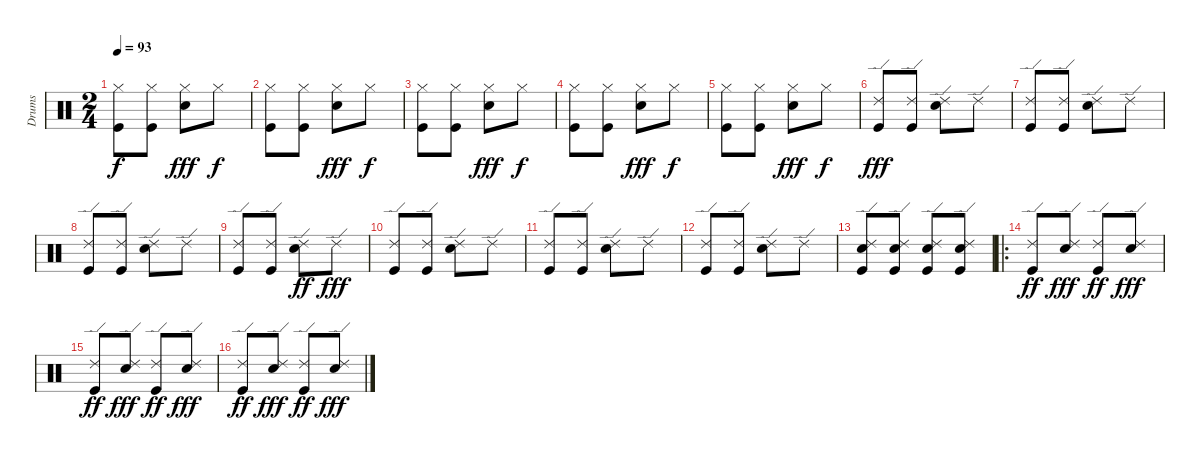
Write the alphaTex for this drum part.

\track ("Drums" "Drums") {instrument percussion}
\staff {score}
\articulation defaults
\ts (2 4)
\tempo 93
\clef neutral
\ks c
("Hi-Hat (closed)" "Kick (hit)").8{dy f} ("Hi-Hat (closed)" "Kick (hit)").8 ("Hi-Hat (closed)" "Snare (hit) 2").8{dy fff} "Hi-Hat (closed)".8{dy f} |
("Hi-Hat (closed)" "Kick (hit)").8 ("Hi-Hat (closed)" "Kick (hit)").8 ("Hi-Hat (closed)" "Snare (hit) 2").8{dy fff} "Hi-Hat (closed)".8{dy f} |
("Hi-Hat (closed)" "Kick (hit)").8 ("Hi-Hat (closed)" "Kick (hit)").8 ("Hi-Hat (closed)" "Snare (hit) 2").8{dy fff} "Hi-Hat (closed)".8{dy f} |
("Hi-Hat (closed)" "Kick (hit)").8 ("Hi-Hat (closed)" "Kick (hit)").8 ("Hi-Hat (closed)" "Snare (hit) 2").8{dy fff} "Hi-Hat (closed)".8{dy f} |
("Hi-Hat (closed)" "Kick (hit)").8 ("Hi-Hat (closed)" "Kick (hit)").8 ("Hi-Hat (closed)" "Snare (hit) 2").8{dy fff} "Hi-Hat (closed)".8{dy f} |
("Ride (edge) 2" "Kick (hit)").8{dy fff} ("Ride (edge) 2" "Kick (hit)").8 ("Ride (edge) 2" "Snare (hit) 2").8 "Ride (edge) 2".8 |
("Ride (edge) 2" "Kick (hit)").8 ("Ride (edge) 2" "Kick (hit)").8 ("Ride (edge) 2" "Snare (hit) 2").8 "Ride (edge) 2".8 |
("Ride (edge) 2" "Kick (hit)").8 ("Ride (edge) 2" "Kick (hit)").8 ("Ride (edge) 2" "Snare (hit) 2").8 "Ride (edge) 2".8 |
("Ride (edge) 2" "Kick (hit)").8 ("Ride (edge) 2" "Kick (hit)").8 ("Ride (edge) 2" "Snare (hit) 2").8{dy ff} "Ride (edge) 2".8{dy fff} |
("Ride (edge) 2" "Kick (hit)").8 ("Ride (edge) 2" "Kick (hit)").8 ("Ride (edge) 2" "Snare (hit) 2").8 "Ride (edge) 2".8 |
("Ride (edge) 2" "Kick (hit)").8 ("Ride (edge) 2" "Kick (hit)").8 ("Ride (edge) 2" "Snare (hit) 2").8 "Ride (edge) 2".8 |
("Ride (edge) 2" "Kick (hit)").8 ("Ride (edge) 2" "Kick (hit)").8 ("Ride (edge) 2" "Snare (hit) 2").8 "Ride (edge) 2".8 |
("Ride (edge) 2" "Snare (hit) 2" "Kick (hit)").8 ("Ride (edge) 2" "Snare (hit) 2" "Kick (hit)").8 ("Ride (edge) 2" "Snare (hit) 2" "Kick (hit)").8 ("Ride (edge) 2" "Snare (hit) 2" "Kick (hit)").8 |
\ro
("Ride (edge) 2" "Kick (hit)").8{dy ff} ("Ride (edge) 2" "Snare (hit) 2").8{dy fff} ("Ride (edge) 2" "Kick (hit)").8{dy ff} ("Ride (edge) 2" "Snare (hit) 2").8{dy fff} |
("Ride (edge) 2" "Kick (hit)").8{dy ff} ("Ride (edge) 2" "Snare (hit) 2").8{dy fff} ("Ride (edge) 2" "Kick (hit)").8{dy ff} ("Ride (edge) 2" "Snare (hit) 2").8{dy fff} |
("Ride (edge) 2" "Kick (hit)").8{dy ff} ("Ride (edge) 2" "Snare (hit) 2").8{dy fff} ("Ride (edge) 2" "Kick (hit)").8{dy ff} ("Ride (edge) 2" "Snare (hit) 2").8{dy fff}
